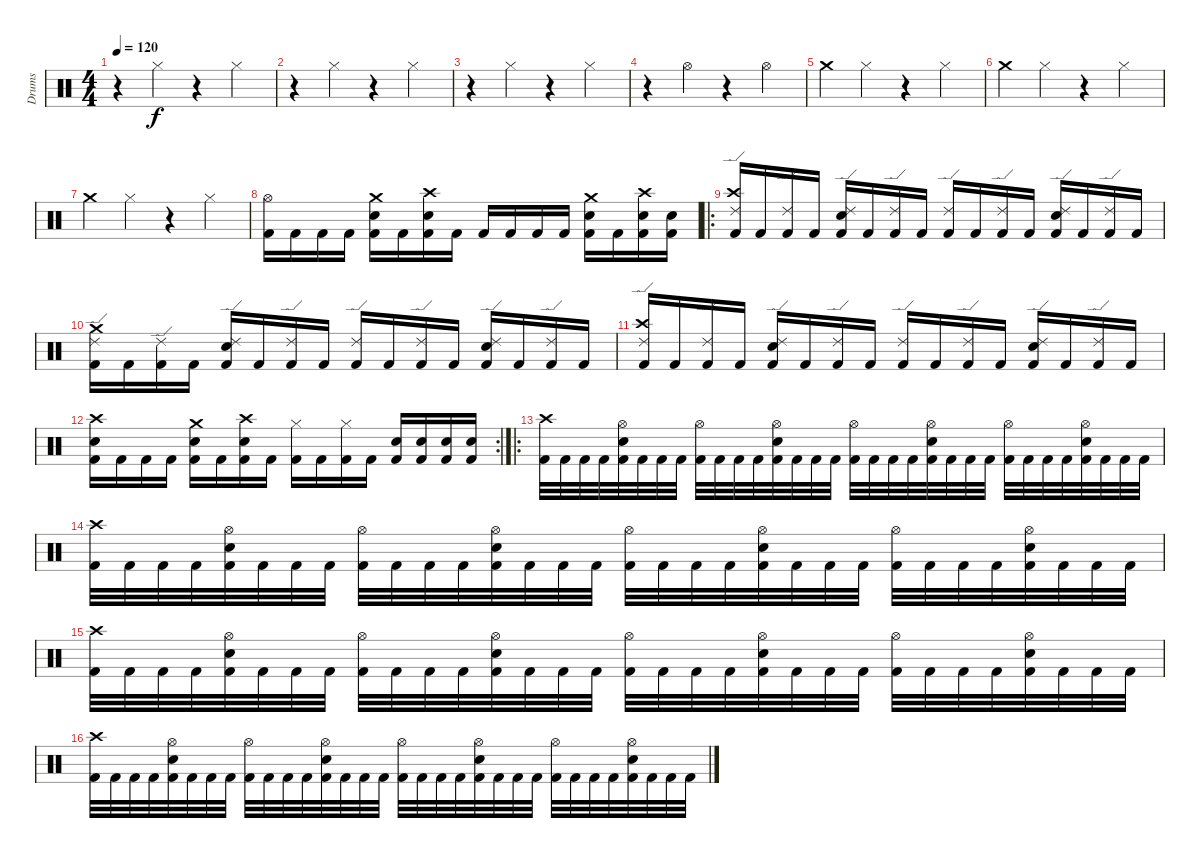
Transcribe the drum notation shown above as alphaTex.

\track ("Drums" "Drums") {instrument percussion}
\staff {score}
\articulation defaults
\ts (4 4)
\tempo 120
\clef neutral
\ks c
r.4{dy f} "Hi-Hat (closed)".4 r.4 "Hi-Hat (closed)".4 |
r.4 "Hi-Hat (closed)".4 r.4 "Hi-Hat (closed)".4 |
r.4 "Hi-Hat (closed)".4 r.4 "Hi-Hat (closed)".4 |
r.4 "Hi-Hat (open)".4 r.4 "Hi-Hat (open)".4 |
"Crash medium (hit)".4 "Hi-Hat (closed)".4 r.4 "Hi-Hat (closed)".4 |
"Crash medium (hit)".4 "Hi-Hat (closed)".4 r.4 "Hi-Hat (closed)".4 |
"Crash medium (hit)".4 "Hi-Hat (closed)".4 r.4 "Hi-Hat (closed)".4 |
("Hi-Hat (open)" "Kick (hit) 2").16 "Kick (hit) 2".16 "Kick (hit) 2".16 "Kick (hit) 2".16 ("Crash medium (hit)" "Snare (hit) 2" "Kick (hit) 2").16 "Kick (hit) 2".16 ("Crash high (hit)" "Snare (hit) 2" "Kick (hit) 2").16 "Kick (hit) 2".16 "Kick (hit) 2".16 "Kick (hit) 2".16 "Kick (hit) 2".16 "Kick (hit) 2".16 ("Crash medium (hit)" "Snare (hit) 2" "Kick (hit) 2").16 "Kick (hit) 2".16 ("Crash high (hit)" "Snare (hit) 2" "Kick (hit) 2").16 ("Snare (hit) 2" "Kick (hit) 2").16 |
\ro
("Ride (edge) 2" "Crash high (hit)" "Kick (hit) 2").16 "Kick (hit) 2".16 ("Ride (edge) 2" "Kick (hit) 2").16 "Kick (hit) 2".16 ("Ride (edge) 2" "Snare (hit) 2" "Kick (hit) 2").16 "Kick (hit) 2".16 ("Ride (edge) 2" "Kick (hit) 2").16 "Kick (hit) 2".16 ("Ride (edge) 2" "Kick (hit) 2").16 "Kick (hit) 2".16 ("Ride (edge) 2" "Kick (hit) 2").16 "Kick (hit) 2".16 ("Ride (edge) 2" "Snare (hit) 2" "Kick (hit) 2").16 "Kick (hit) 2".16 ("Ride (edge) 2" "Kick (hit) 2").16 "Kick (hit) 2".16 |
("Ride (edge) 2" "Crash medium (hit)" "Kick (hit) 2").16 "Kick (hit) 2".16 ("Ride (edge) 2" "Kick (hit) 2").16 "Kick (hit) 2".16 ("Ride (edge) 2" "Snare (hit) 2" "Kick (hit) 2").16 "Kick (hit) 2".16 ("Ride (edge) 2" "Kick (hit) 2").16 "Kick (hit) 2".16 ("Ride (edge) 2" "Kick (hit) 2").16 "Kick (hit) 2".16 ("Ride (edge) 2" "Kick (hit) 2").16 "Kick (hit) 2".16 ("Ride (edge) 2" "Snare (hit) 2" "Kick (hit) 2").16 "Kick (hit) 2".16 ("Ride (edge) 2" "Kick (hit) 2").16 "Kick (hit) 2".16 |
("Ride (edge) 2" "Crash high (hit)" "Kick (hit) 2").16 "Kick (hit) 2".16 ("Ride (edge) 2" "Kick (hit) 2").16 "Kick (hit) 2".16 ("Ride (edge) 2" "Snare (hit) 2" "Kick (hit) 2").16 "Kick (hit) 2".16 ("Ride (edge) 2" "Kick (hit) 2").16 "Kick (hit) 2".16 ("Ride (edge) 2" "Kick (hit) 2").16 "Kick (hit) 2".16 ("Ride (edge) 2" "Kick (hit) 2").16 "Kick (hit) 2".16 ("Ride (edge) 2" "Snare (hit) 2" "Kick (hit) 2").16 "Kick (hit) 2".16 ("Ride (edge) 2" "Kick (hit) 2").16 "Kick (hit) 2".16 |
\rc 2
("Crash high (hit)" "Snare (hit) 2" "Kick (hit) 2").16 "Kick (hit) 2".16 "Kick (hit) 2".16 "Kick (hit) 2".16 ("Crash medium (hit)" "Snare (hit) 2" "Kick (hit) 2").16 "Kick (hit) 2".16 ("Crash high (hit)" "Snare (hit) 2" "Kick (hit) 2").16 "Kick (hit) 2".16 ("Hi-Hat (closed)" "Kick (hit) 2").16 "Kick (hit) 2".16 ("Hi-Hat (closed)" "Kick (hit) 2").16 "Kick (hit) 2".16 ("Snare (hit) 2" "Kick (hit) 2").16 ("Snare (hit) 2" "Kick (hit) 2").16 ("Snare (hit) 2" "Kick (hit) 2").16 ("Snare (hit) 2" "Kick (hit) 2").16 |
\ro
("Crash high (hit)" "Kick (hit) 2").32 "Kick (hit) 2".32 "Kick (hit) 2".32 "Kick (hit) 2".32 ("Hi-Hat (open)" "Snare (hit) 2" "Kick (hit) 2").32 "Kick (hit) 2".32 "Kick (hit) 2".32 "Kick (hit) 2".32 ("Hi-Hat (open)" "Kick (hit) 2").32 "Kick (hit) 2".32 "Kick (hit) 2".32 "Kick (hit) 2".32 ("Hi-Hat (open)" "Snare (hit) 2" "Kick (hit) 2").32 "Kick (hit) 2".32 "Kick (hit) 2".32 "Kick (hit) 2".32 ("Hi-Hat (open)" "Kick (hit) 2").32 "Kick (hit) 2".32 "Kick (hit) 2".32 "Kick (hit) 2".32 ("Hi-Hat (open)" "Snare (hit) 2" "Kick (hit) 2").32 "Kick (hit) 2".32 "Kick (hit) 2".32 "Kick (hit) 2".32 ("Hi-Hat (open)" "Kick (hit) 2").32 "Kick (hit) 2".32 "Kick (hit) 2".32 "Kick (hit) 2".32 ("Hi-Hat (open)" "Snare (hit) 2" "Kick (hit) 2").32 "Kick (hit) 2".32 "Kick (hit) 2".32 "Kick (hit) 2".32 |
("Crash high (hit)" "Kick (hit) 2").32 "Kick (hit) 2".32 "Kick (hit) 2".32 "Kick (hit) 2".32 ("Hi-Hat (open)" "Snare (hit) 2" "Kick (hit) 2").32 "Kick (hit) 2".32 "Kick (hit) 2".32 "Kick (hit) 2".32 ("Hi-Hat (open)" "Kick (hit) 2").32 "Kick (hit) 2".32 "Kick (hit) 2".32 "Kick (hit) 2".32 ("Hi-Hat (open)" "Snare (hit) 2" "Kick (hit) 2").32 "Kick (hit) 2".32 "Kick (hit) 2".32 "Kick (hit) 2".32 ("Hi-Hat (open)" "Kick (hit) 2").32 "Kick (hit) 2".32 "Kick (hit) 2".32 "Kick (hit) 2".32 ("Hi-Hat (open)" "Snare (hit) 2" "Kick (hit) 2").32 "Kick (hit) 2".32 "Kick (hit) 2".32 "Kick (hit) 2".32 ("Hi-Hat (open)" "Kick (hit) 2").32 "Kick (hit) 2".32 "Kick (hit) 2".32 "Kick (hit) 2".32 ("Hi-Hat (open)" "Snare (hit) 2" "Kick (hit) 2").32 "Kick (hit) 2".32 "Kick (hit) 2".32 "Kick (hit) 2".32 |
("Crash high (hit)" "Kick (hit) 2").32 "Kick (hit) 2".32 "Kick (hit) 2".32 "Kick (hit) 2".32 ("Hi-Hat (open)" "Snare (hit) 2" "Kick (hit) 2").32 "Kick (hit) 2".32 "Kick (hit) 2".32 "Kick (hit) 2".32 ("Hi-Hat (open)" "Kick (hit) 2").32 "Kick (hit) 2".32 "Kick (hit) 2".32 "Kick (hit) 2".32 ("Hi-Hat (open)" "Snare (hit) 2" "Kick (hit) 2").32 "Kick (hit) 2".32 "Kick (hit) 2".32 "Kick (hit) 2".32 ("Hi-Hat (open)" "Kick (hit) 2").32 "Kick (hit) 2".32 "Kick (hit) 2".32 "Kick (hit) 2".32 ("Hi-Hat (open)" "Snare (hit) 2" "Kick (hit) 2").32 "Kick (hit) 2".32 "Kick (hit) 2".32 "Kick (hit) 2".32 ("Hi-Hat (open)" "Kick (hit) 2").32 "Kick (hit) 2".32 "Kick (hit) 2".32 "Kick (hit) 2".32 ("Hi-Hat (open)" "Snare (hit) 2" "Kick (hit) 2").32 "Kick (hit) 2".32 "Kick (hit) 2".32 "Kick (hit) 2".32 |
("Crash high (hit)" "Kick (hit) 2").32 "Kick (hit) 2".32 "Kick (hit) 2".32 "Kick (hit) 2".32 ("Hi-Hat (open)" "Snare (hit) 2" "Kick (hit) 2").32 "Kick (hit) 2".32 "Kick (hit) 2".32 "Kick (hit) 2".32 ("Hi-Hat (open)" "Kick (hit) 2").32 "Kick (hit) 2".32 "Kick (hit) 2".32 "Kick (hit) 2".32 ("Hi-Hat (open)" "Snare (hit) 2" "Kick (hit) 2").32 "Kick (hit) 2".32 "Kick (hit) 2".32 "Kick (hit) 2".32 ("Hi-Hat (open)" "Kick (hit) 2").32 "Kick (hit) 2".32 "Kick (hit) 2".32 "Kick (hit) 2".32 ("Hi-Hat (open)" "Snare (hit) 2" "Kick (hit) 2").32 "Kick (hit) 2".32 "Kick (hit) 2".32 "Kick (hit) 2".32 ("Hi-Hat (open)" "Kick (hit) 2").32 "Kick (hit) 2".32 "Kick (hit) 2".32 "Kick (hit) 2".32 ("Hi-Hat (open)" "Snare (hit) 2" "Kick (hit) 2").32 "Kick (hit) 2".32 "Kick (hit) 2".32 "Kick (hit) 2".32
